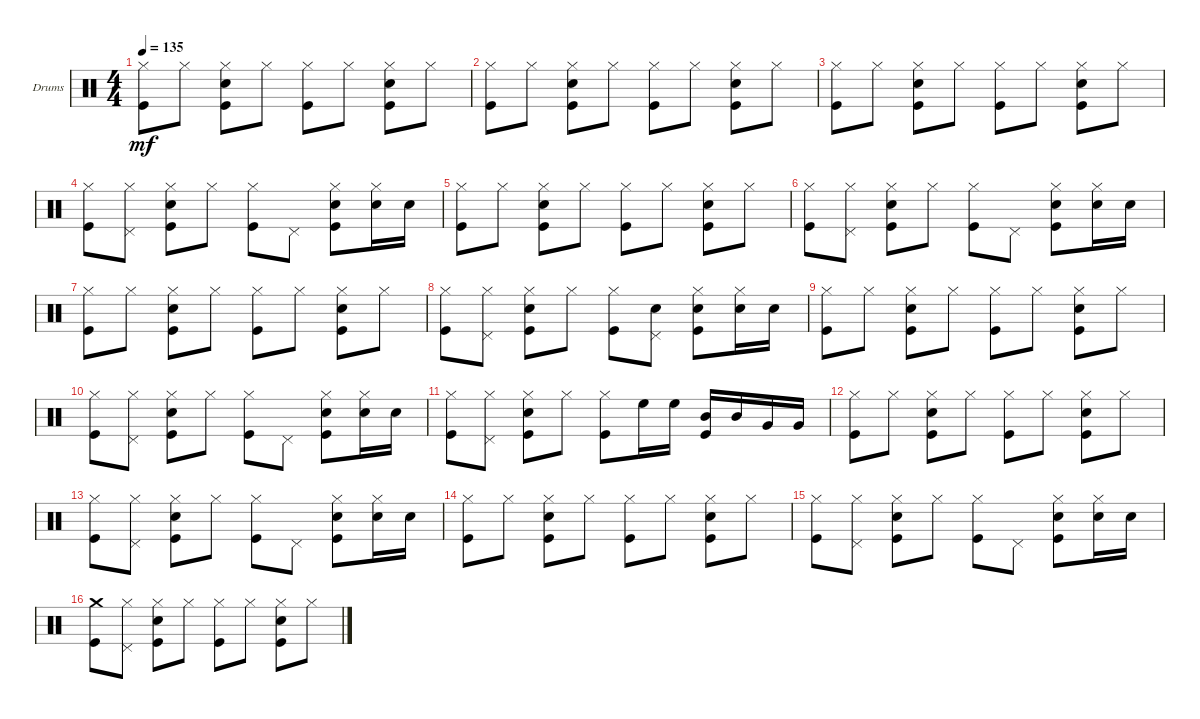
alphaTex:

\bracketExtendMode groupsimilarinstruments
\firstSystemTrackNameOrientation horizontal
\otherSystemsTrackNameOrientation horizontal
\track ("Drumkit" "Drums") {instrument percussion}
\staff {score}
\articulation defaults
\ts (4 4)
\tempo 135
\clef neutral
\ks c
("Kick (hit)" "Hi-Hat (closed)").8{dy mf} "Hi-Hat (closed)".8 ("Hi-Hat (closed)" "Kick (hit)" "Snare (hit) 2").8 "Hi-Hat (closed)".8 ("Kick (hit)" "Hi-Hat (closed)").8 "Hi-Hat (closed)".8 ("Snare (hit) 2" "Hi-Hat (closed)" "Kick (hit)").8 "Hi-Hat (closed)".8 |
("Kick (hit)" "Hi-Hat (closed)").8 "Hi-Hat (closed)".8 ("Hi-Hat (closed)" "Kick (hit)" "Snare (hit) 2").8 "Hi-Hat (closed)".8 ("Kick (hit)" "Hi-Hat (closed)").8 "Hi-Hat (closed)".8 ("Snare (hit) 2" "Hi-Hat (closed)" "Kick (hit)").8 "Hi-Hat (closed)".8 |
("Kick (hit)" "Hi-Hat (closed)").8 "Hi-Hat (closed)".8 ("Kick (hit)" "Hi-Hat (closed)" "Snare (hit) 2").8 "Hi-Hat (closed)".8 ("Hi-Hat (closed)" "Kick (hit)").8 "Hi-Hat (closed)".8 ("Snare (hit) 2" "Hi-Hat (closed)" "Kick (hit)").8 "Hi-Hat (closed)".8 |
("Kick (hit)" "Hi-Hat (closed)").8 ("Hi-Hat (closed)" "Pedal Hi-Hat (hit)").8 ("Snare (hit) 2" "Hi-Hat (closed)" "Kick (hit)").8 "Hi-Hat (closed)".8 ("Hi-Hat (closed)" "Kick (hit)").8 "Pedal Hi-Hat (hit)".8 ("Snare (hit) 2" "Hi-Hat (closed)" "Kick (hit)").8 ("Hi-Hat (closed)" "Snare (hit) 2").16 "Snare (hit) 2".16 |
("Kick (hit)" "Hi-Hat (closed)").8 "Hi-Hat (closed)".8 ("Hi-Hat (closed)" "Snare (hit) 2" "Kick (hit)").8 "Hi-Hat (closed)".8 ("Kick (hit)" "Hi-Hat (closed)").8 "Hi-Hat (closed)".8 ("Snare (hit) 2" "Hi-Hat (closed)" "Kick (hit)").8 "Hi-Hat (closed)".8 |
("Kick (hit)" "Hi-Hat (closed)").8 ("Hi-Hat (closed)" "Pedal Hi-Hat (hit)").8 ("Snare (hit) 2" "Hi-Hat (closed)" "Kick (hit)").8 "Hi-Hat (closed)".8 ("Kick (hit)" "Hi-Hat (closed)").8 "Pedal Hi-Hat (hit)".8 ("Kick (hit)" "Snare (hit) 2" "Hi-Hat (closed)").8 ("Hi-Hat (closed)" "Snare (hit) 2").16 "Snare (hit) 2".16 |
("Hi-Hat (closed)" "Kick (hit)").8 "Hi-Hat (closed)".8 ("Snare (hit) 2" "Hi-Hat (closed)" "Kick (hit)").8 "Hi-Hat (closed)".8 ("Hi-Hat (closed)" "Kick (hit)").8 "Hi-Hat (closed)".8 ("Snare (hit) 2" "Hi-Hat (closed)" "Kick (hit)").8 "Hi-Hat (closed)".8 |
("Kick (hit)" "Hi-Hat (closed)").8 ("Hi-Hat (closed)" "Pedal Hi-Hat (hit)").8 ("Snare (hit) 2" "Kick (hit)" "Hi-Hat (closed)").8 "Hi-Hat (closed)".8 ("Hi-Hat (closed)" "Kick (hit)").8 ("Snare (hit) 2" "Pedal Hi-Hat (hit)").8 ("Snare (hit) 2" "Hi-Hat (closed)" "Kick (hit)").8 ("Hi-Hat (closed)" "Snare (hit) 2").16 "Snare (hit) 2".16 |
("Hi-Hat (closed)" "Kick (hit)").8 "Hi-Hat (closed)".8 ("Snare (hit) 2" "Kick (hit)" "Hi-Hat (closed)").8 "Hi-Hat (closed)".8 ("Hi-Hat (closed)" "Kick (hit)").8 "Hi-Hat (closed)".8 ("Snare (hit) 2" "Hi-Hat (closed)" "Kick (hit)").8 "Hi-Hat (closed)".8 |
("Kick (hit)" "Hi-Hat (closed)").8 ("Pedal Hi-Hat (hit)" "Hi-Hat (closed)").8 ("Hi-Hat (closed)" "Snare (hit) 2" "Kick (hit)").8 "Hi-Hat (closed)".8 ("Kick (hit)" "Hi-Hat (closed)").8 "Pedal Hi-Hat (hit)".8 ("Snare (hit) 2" "Hi-Hat (closed)" "Kick (hit)").8 ("Hi-Hat (closed)" "Snare (hit) 2").16 "Snare (hit) 2".16 |
("Kick (hit)" "Hi-Hat (closed)").8 ("Hi-Hat (closed)" "Pedal Hi-Hat (hit)").8 ("Hi-Hat (closed)" "Snare (hit) 2" "Kick (hit)").8 "Hi-Hat (closed)".8 ("Kick (hit)" "Hi-Hat (closed)").8 "High Floor Tom (hit)".16 "High Floor Tom (hit)".16 ("Mid Tom (hit)" "Kick (hit)").16 "Mid Tom (hit)".16 "Very Low Tom (hit)".16 "Very Low Tom (hit)".16 |
("Hi-Hat (closed)" "Kick (hit)").8 "Hi-Hat (closed)".8 ("Snare (hit) 2" "Kick (hit)" "Hi-Hat (closed)").8 "Hi-Hat (closed)".8 ("Hi-Hat (closed)" "Kick (hit)").8 "Hi-Hat (closed)".8 ("Snare (hit) 2" "Hi-Hat (closed)" "Kick (hit)").8 "Hi-Hat (closed)".8 |
("Hi-Hat (closed)" "Kick (hit)").8 ("Hi-Hat (closed)" "Pedal Hi-Hat (hit)").8 ("Snare (hit) 2" "Kick (hit)" "Hi-Hat (closed)").8 "Hi-Hat (closed)".8 ("Hi-Hat (closed)" "Kick (hit)").8 "Pedal Hi-Hat (hit)".8 ("Snare (hit) 2" "Hi-Hat (closed)" "Kick (hit)").8 ("Hi-Hat (closed)" "Snare (hit) 2").16 "Snare (hit) 2".16 |
("Kick (hit)" "Hi-Hat (closed)").8 "Hi-Hat (closed)".8 ("Kick (hit)" "Snare (hit) 2" "Hi-Hat (closed)").8 "Hi-Hat (closed)".8 ("Kick (hit)" "Hi-Hat (closed)").8 "Hi-Hat (closed)".8 ("Snare (hit) 2" "Hi-Hat (closed)" "Kick (hit)").8 "Hi-Hat (closed)".8 |
("Kick (hit)" "Hi-Hat (closed)").8 ("Hi-Hat (closed)" "Pedal Hi-Hat (hit)").8 ("Hi-Hat (closed)" "Kick (hit)" "Snare (hit) 2").8 "Hi-Hat (closed)".8 ("Hi-Hat (closed)" "Kick (hit)").8 "Pedal Hi-Hat (hit)".8 ("Snare (hit) 2" "Hi-Hat (closed)" "Kick (hit)").8 ("Hi-Hat (closed)" "Snare (hit) 2").16 "Snare (hit) 2".16 |
("Crash medium (hit)" "Kick (hit)").8 ("Pedal Hi-Hat (hit)" "Hi-Hat (closed)").8 ("Hi-Hat (closed)" "Snare (hit) 2" "Kick (hit)").8 "Hi-Hat (closed)".8 ("Hi-Hat (closed)" "Kick (hit)").8 "Hi-Hat (closed)".8 ("Snare (hit) 2" "Hi-Hat (closed)" "Kick (hit)").8 "Hi-Hat (closed)".8
